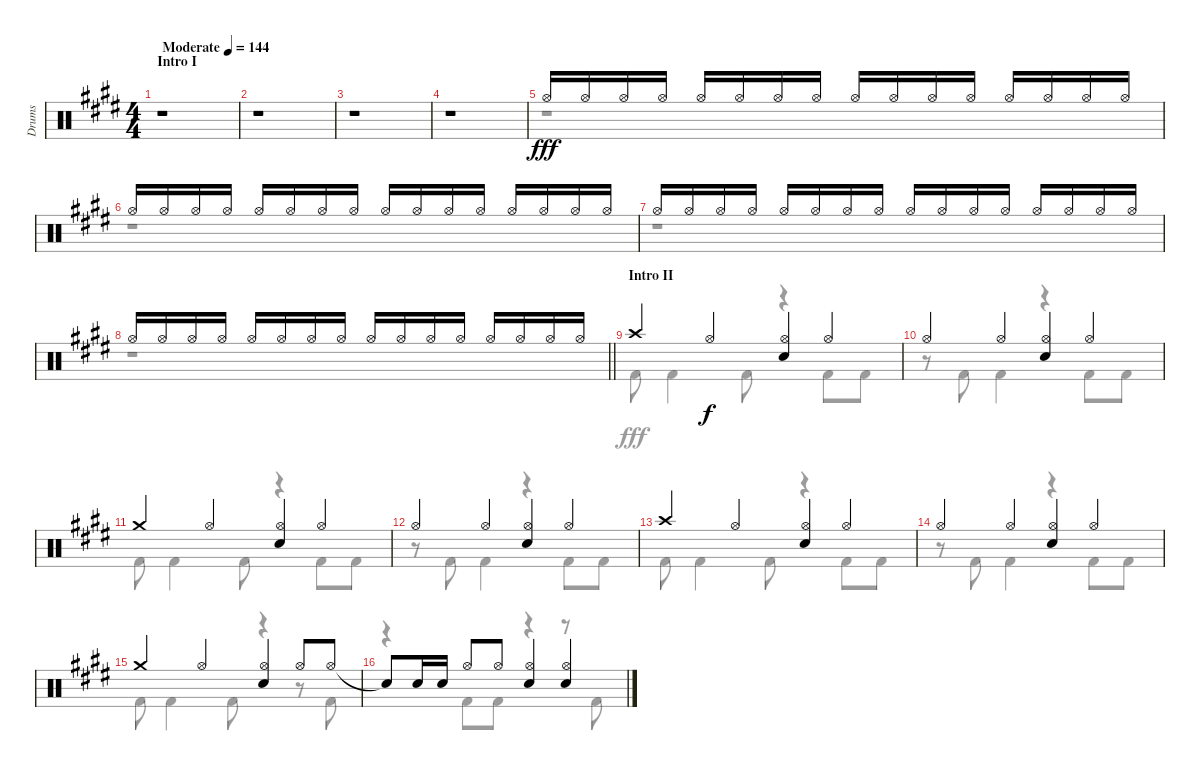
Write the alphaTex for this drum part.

\track ("Drums" "Drums") {instrument percussion}
\staff {score}
\articulation defaults
\voice
\ts (4 4)
\section ("" "Intro I")
\tempo (144 "Moderate")
\clef neutral
\ks e
r.1{dy fff} |
r.1 |
r.1 |
r.1{volume 0} |
"Hi-Hat (open)".16{volume 14} "Hi-Hat (open)".16 "Hi-Hat (open)".16 "Hi-Hat (open)".16 "Hi-Hat (open)".16 "Hi-Hat (open)".16 "Hi-Hat (open)".16 "Hi-Hat (open)".16 "Hi-Hat (open)".16 "Hi-Hat (open)".16 "Hi-Hat (open)".16 "Hi-Hat (open)".16 "Hi-Hat (open)".16 "Hi-Hat (open)".16 "Hi-Hat (open)".16 "Hi-Hat (open)".16 |
"Hi-Hat (open)".16 "Hi-Hat (open)".16 "Hi-Hat (open)".16 "Hi-Hat (open)".16 "Hi-Hat (open)".16 "Hi-Hat (open)".16 "Hi-Hat (open)".16 "Hi-Hat (open)".16 "Hi-Hat (open)".16 "Hi-Hat (open)".16 "Hi-Hat (open)".16 "Hi-Hat (open)".16 "Hi-Hat (open)".16 "Hi-Hat (open)".16 "Hi-Hat (open)".16 "Hi-Hat (open)".16 |
"Hi-Hat (open)".16 "Hi-Hat (open)".16 "Hi-Hat (open)".16 "Hi-Hat (open)".16 "Hi-Hat (open)".16 "Hi-Hat (open)".16 "Hi-Hat (open)".16 "Hi-Hat (open)".16 "Hi-Hat (open)".16 "Hi-Hat (open)".16 "Hi-Hat (open)".16 "Hi-Hat (open)".16 "Hi-Hat (open)".16 "Hi-Hat (open)".16 "Hi-Hat (open)".16 "Hi-Hat (open)".16 |
\barLineRight lightlight "Hi-Hat (open)".16 "Hi-Hat (open)".16 "Hi-Hat (open)".16 "Hi-Hat (open)".16 "Hi-Hat (open)".16 "Hi-Hat (open)".16 "Hi-Hat (open)".16 "Hi-Hat (open)".16 "Hi-Hat (open)".16 "Hi-Hat (open)".16 "Hi-Hat (open)".16 "Hi-Hat (open)".16 "Hi-Hat (open)".16 "Hi-Hat (open)".16 "Hi-Hat (open)".16 "Hi-Hat (open)".16
|
\section ("" "Intro II")
"Crash high (hit)".4 "Hi-Hat (open)".4{dy f} ("Hi-Hat (open)" "Snare (hit) 2").4 "Hi-Hat (open)".4 |
"Hi-Hat (open)".4 "Hi-Hat (open)".4 ("Hi-Hat (open)" "Snare (hit) 2").4 "Hi-Hat (open)".4 |
"Crash medium (hit)".4 "Hi-Hat (open)".4 ("Hi-Hat (open)" "Snare (hit) 2").4 "Hi-Hat (open)".4 |
"Hi-Hat (open)".4 "Hi-Hat (open)".4 ("Hi-Hat (open)" "Snare (hit) 2").4 "Hi-Hat (open)".4 |
"Crash high (hit)".4 "Hi-Hat (open)".4 ("Hi-Hat (open)" "Snare (hit) 2").4 "Hi-Hat (open)".4 |
"Hi-Hat (open)".4 "Hi-Hat (open)".4 ("Hi-Hat (open)" "Snare (hit) 2").4 "Hi-Hat (open)".4 |
"Crash medium (hit)".4 "Hi-Hat (open)".4 ("Hi-Hat (open)" "Snare (hit) 2").4 "Hi-Hat (open)".8 "Hi-Hat (open)".8 |
"Snare (hit)"{t}.8 "Snare (hit) 2".16 "Snare (hit) 2".16 "Hi-Hat (open)".8 "Hi-Hat (open)".8 ("Hi-Hat (open)" "Snare (hit) 2").4 ("Hi-Hat (open)" "Snare (hit) 2").4
\voice
\clef neutral
\ottava regular
\simile none
\ks e
r.1{dy fff} |
r.1 |
r.1 |
r.1 |
r.1 |
r.1 |
r.1 |
\barLineRight lightlight
r.1 |
"Kick (hit) 2".8 "Kick (hit) 2".4 "Kick (hit) 2".8 r.4 "Kick (hit) 2".8 "Kick (hit) 2".8 |
r.8 "Kick (hit) 2".8 "Kick (hit) 2".4 r.4 "Kick (hit) 2".8 "Kick (hit) 2".8 |
"Kick (hit) 2".8 "Kick (hit) 2".4 "Kick (hit) 2".8 r.4 "Kick (hit) 2".8 "Kick (hit) 2".8 |
r.8 "Kick (hit) 2".8 "Kick (hit) 2".4 r.4 "Kick (hit) 2".8 "Kick (hit) 2".8 |
"Kick (hit) 2".8 "Kick (hit) 2".4 "Kick (hit) 2".8 r.4 "Kick (hit) 2".8 "Kick (hit) 2".8 |
r.8 "Kick (hit) 2".8 "Kick (hit) 2".4 r.4 "Kick (hit) 2".8 "Kick (hit) 2".8 |
"Kick (hit) 2".8 "Kick (hit) 2".4 "Kick (hit) 2".8 r.4 r.8 "Kick (hit) 2".8 |
r.4 "Kick (hit) 2".8 "Kick (hit) 2".8 r.4 r.8 "Kick (hit) 2".8
